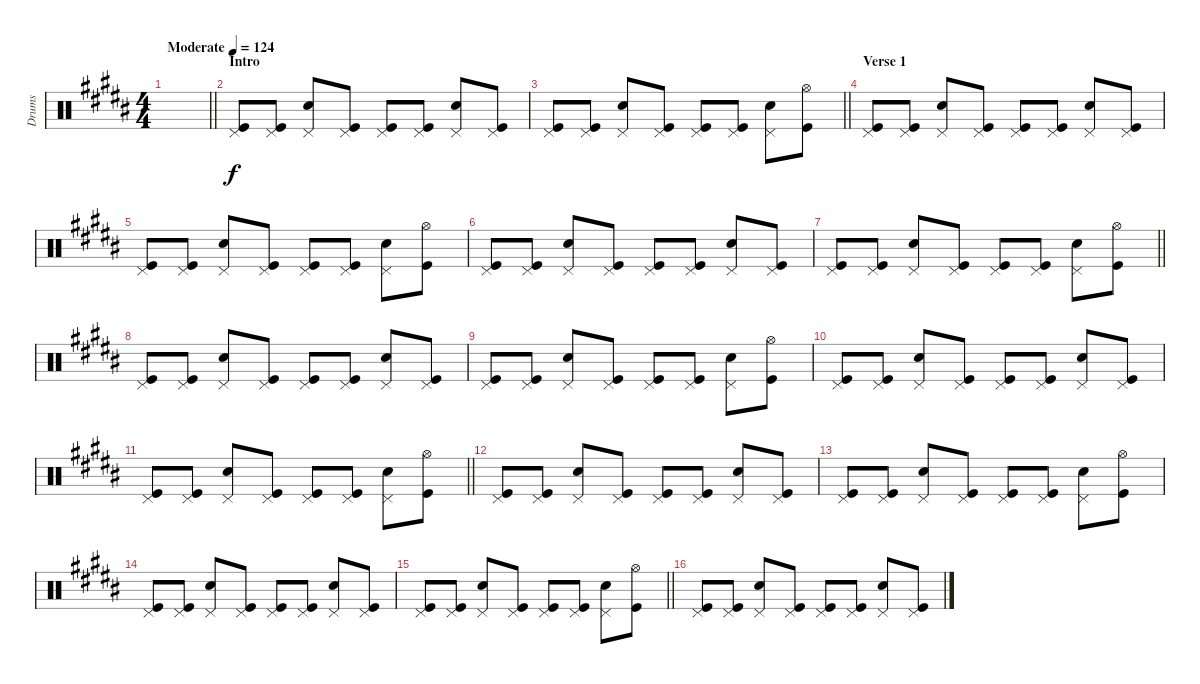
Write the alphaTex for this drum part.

\track ("Drums" "Drums") {instrument percussion}
\staff {score}
\articulation defaults
\ts (4 4)
\tempo (124 "Moderate")
\clef neutral
\barLineRight lightlight
\ks b
|
\section ("" "Intro")
("Pedal Hi-Hat (hit)" "Kick (hit)").8 ("Pedal Hi-Hat (hit)" "Kick (hit)").8 ("Pedal Hi-Hat (hit)" "Electric Snare (hit)").8 ("Pedal Hi-Hat (hit)" "Kick (hit)").8 ("Pedal Hi-Hat (hit)" "Kick (hit)").8 ("Pedal Hi-Hat (hit)" "Kick (hit)").8 ("Pedal Hi-Hat (hit)" "Electric Snare (hit)").8 ("Pedal Hi-Hat (hit)" "Kick (hit)").8 |
\barLineRight lightlight
("Pedal Hi-Hat (hit)" "Kick (hit)").8 ("Pedal Hi-Hat (hit)" "Kick (hit)").8 ("Pedal Hi-Hat (hit)" "Electric Snare (hit)").8 ("Pedal Hi-Hat (hit)" "Kick (hit)").8 ("Pedal Hi-Hat (hit)" "Kick (hit)").8 ("Pedal Hi-Hat (hit)" "Kick (hit)").8 ("Pedal Hi-Hat (hit)" "Electric Snare (hit)").8 ("Hi-Hat (open)" "Kick (hit)").8 |
\section ("" "Verse 1")
("Pedal Hi-Hat (hit)" "Kick (hit)").8 ("Pedal Hi-Hat (hit)" "Kick (hit)").8 ("Pedal Hi-Hat (hit)" "Electric Snare (hit)").8 ("Pedal Hi-Hat (hit)" "Kick (hit)").8 ("Pedal Hi-Hat (hit)" "Kick (hit)").8 ("Pedal Hi-Hat (hit)" "Kick (hit)").8 ("Pedal Hi-Hat (hit)" "Electric Snare (hit)").8 ("Pedal Hi-Hat (hit)" "Kick (hit)").8 |
("Pedal Hi-Hat (hit)" "Kick (hit)").8 ("Pedal Hi-Hat (hit)" "Kick (hit)").8 ("Pedal Hi-Hat (hit)" "Electric Snare (hit)").8 ("Pedal Hi-Hat (hit)" "Kick (hit)").8 ("Pedal Hi-Hat (hit)" "Kick (hit)").8 ("Pedal Hi-Hat (hit)" "Kick (hit)").8 ("Pedal Hi-Hat (hit)" "Electric Snare (hit)").8 ("Hi-Hat (open)" "Kick (hit)").8 |
("Pedal Hi-Hat (hit)" "Kick (hit)").8 ("Pedal Hi-Hat (hit)" "Kick (hit)").8 ("Pedal Hi-Hat (hit)" "Electric Snare (hit)").8 ("Pedal Hi-Hat (hit)" "Kick (hit)").8 ("Pedal Hi-Hat (hit)" "Kick (hit)").8 ("Pedal Hi-Hat (hit)" "Kick (hit)").8 ("Pedal Hi-Hat (hit)" "Electric Snare (hit)").8 ("Pedal Hi-Hat (hit)" "Kick (hit)").8 |
\barLineRight lightlight
("Pedal Hi-Hat (hit)" "Kick (hit)").8 ("Pedal Hi-Hat (hit)" "Kick (hit)").8 ("Pedal Hi-Hat (hit)" "Electric Snare (hit)").8 ("Pedal Hi-Hat (hit)" "Kick (hit)").8 ("Pedal Hi-Hat (hit)" "Kick (hit)").8 ("Pedal Hi-Hat (hit)" "Kick (hit)").8 ("Pedal Hi-Hat (hit)" "Electric Snare (hit)").8 ("Hi-Hat (open)" "Kick (hit)").8 |
("Pedal Hi-Hat (hit)" "Kick (hit)").8 ("Pedal Hi-Hat (hit)" "Kick (hit)").8 ("Pedal Hi-Hat (hit)" "Electric Snare (hit)").8 ("Pedal Hi-Hat (hit)" "Kick (hit)").8 ("Pedal Hi-Hat (hit)" "Kick (hit)").8 ("Pedal Hi-Hat (hit)" "Kick (hit)").8 ("Pedal Hi-Hat (hit)" "Electric Snare (hit)").8 ("Pedal Hi-Hat (hit)" "Kick (hit)").8 |
("Pedal Hi-Hat (hit)" "Kick (hit)").8 ("Pedal Hi-Hat (hit)" "Kick (hit)").8 ("Pedal Hi-Hat (hit)" "Electric Snare (hit)").8 ("Pedal Hi-Hat (hit)" "Kick (hit)").8 ("Pedal Hi-Hat (hit)" "Kick (hit)").8 ("Pedal Hi-Hat (hit)" "Kick (hit)").8 ("Pedal Hi-Hat (hit)" "Electric Snare (hit)").8 ("Hi-Hat (open)" "Kick (hit)").8 |
("Pedal Hi-Hat (hit)" "Kick (hit)").8 ("Pedal Hi-Hat (hit)" "Kick (hit)").8 ("Pedal Hi-Hat (hit)" "Electric Snare (hit)").8 ("Pedal Hi-Hat (hit)" "Kick (hit)").8 ("Pedal Hi-Hat (hit)" "Kick (hit)").8 ("Pedal Hi-Hat (hit)" "Kick (hit)").8 ("Pedal Hi-Hat (hit)" "Electric Snare (hit)").8 ("Pedal Hi-Hat (hit)" "Kick (hit)").8 |
\barLineRight lightlight
("Pedal Hi-Hat (hit)" "Kick (hit)").8 ("Pedal Hi-Hat (hit)" "Kick (hit)").8 ("Pedal Hi-Hat (hit)" "Electric Snare (hit)").8 ("Pedal Hi-Hat (hit)" "Kick (hit)").8 ("Pedal Hi-Hat (hit)" "Kick (hit)").8 ("Pedal Hi-Hat (hit)" "Kick (hit)").8 ("Pedal Hi-Hat (hit)" "Electric Snare (hit)").8 ("Hi-Hat (open)" "Kick (hit)").8 |
("Pedal Hi-Hat (hit)" "Kick (hit)").8 ("Pedal Hi-Hat (hit)" "Kick (hit)").8 ("Pedal Hi-Hat (hit)" "Electric Snare (hit)").8 ("Pedal Hi-Hat (hit)" "Kick (hit)").8 ("Pedal Hi-Hat (hit)" "Kick (hit)").8 ("Pedal Hi-Hat (hit)" "Kick (hit)").8 ("Pedal Hi-Hat (hit)" "Electric Snare (hit)").8 ("Pedal Hi-Hat (hit)" "Kick (hit)").8 |
("Pedal Hi-Hat (hit)" "Kick (hit)").8 ("Pedal Hi-Hat (hit)" "Kick (hit)").8 ("Pedal Hi-Hat (hit)" "Electric Snare (hit)").8 ("Pedal Hi-Hat (hit)" "Kick (hit)").8 ("Pedal Hi-Hat (hit)" "Kick (hit)").8 ("Pedal Hi-Hat (hit)" "Kick (hit)").8 ("Pedal Hi-Hat (hit)" "Electric Snare (hit)").8 ("Hi-Hat (open)" "Kick (hit)").8 |
("Pedal Hi-Hat (hit)" "Kick (hit)").8 ("Pedal Hi-Hat (hit)" "Kick (hit)").8 ("Pedal Hi-Hat (hit)" "Electric Snare (hit)").8 ("Pedal Hi-Hat (hit)" "Kick (hit)").8 ("Pedal Hi-Hat (hit)" "Kick (hit)").8 ("Pedal Hi-Hat (hit)" "Kick (hit)").8 ("Pedal Hi-Hat (hit)" "Electric Snare (hit)").8 ("Pedal Hi-Hat (hit)" "Kick (hit)").8 |
\barLineRight lightlight
("Pedal Hi-Hat (hit)" "Kick (hit)").8 ("Pedal Hi-Hat (hit)" "Kick (hit)").8 ("Pedal Hi-Hat (hit)" "Electric Snare (hit)").8 ("Pedal Hi-Hat (hit)" "Kick (hit)").8 ("Pedal Hi-Hat (hit)" "Kick (hit)").8 ("Pedal Hi-Hat (hit)" "Kick (hit)").8 ("Pedal Hi-Hat (hit)" "Electric Snare (hit)").8 ("Hi-Hat (open)" "Kick (hit)").8 |
("Pedal Hi-Hat (hit)" "Kick (hit)").8 ("Pedal Hi-Hat (hit)" "Kick (hit)").8 ("Pedal Hi-Hat (hit)" "Electric Snare (hit)").8 ("Pedal Hi-Hat (hit)" "Kick (hit)").8 ("Pedal Hi-Hat (hit)" "Kick (hit)").8 ("Pedal Hi-Hat (hit)" "Kick (hit)").8 ("Pedal Hi-Hat (hit)" "Electric Snare (hit)").8 ("Pedal Hi-Hat (hit)" "Kick (hit)").8
